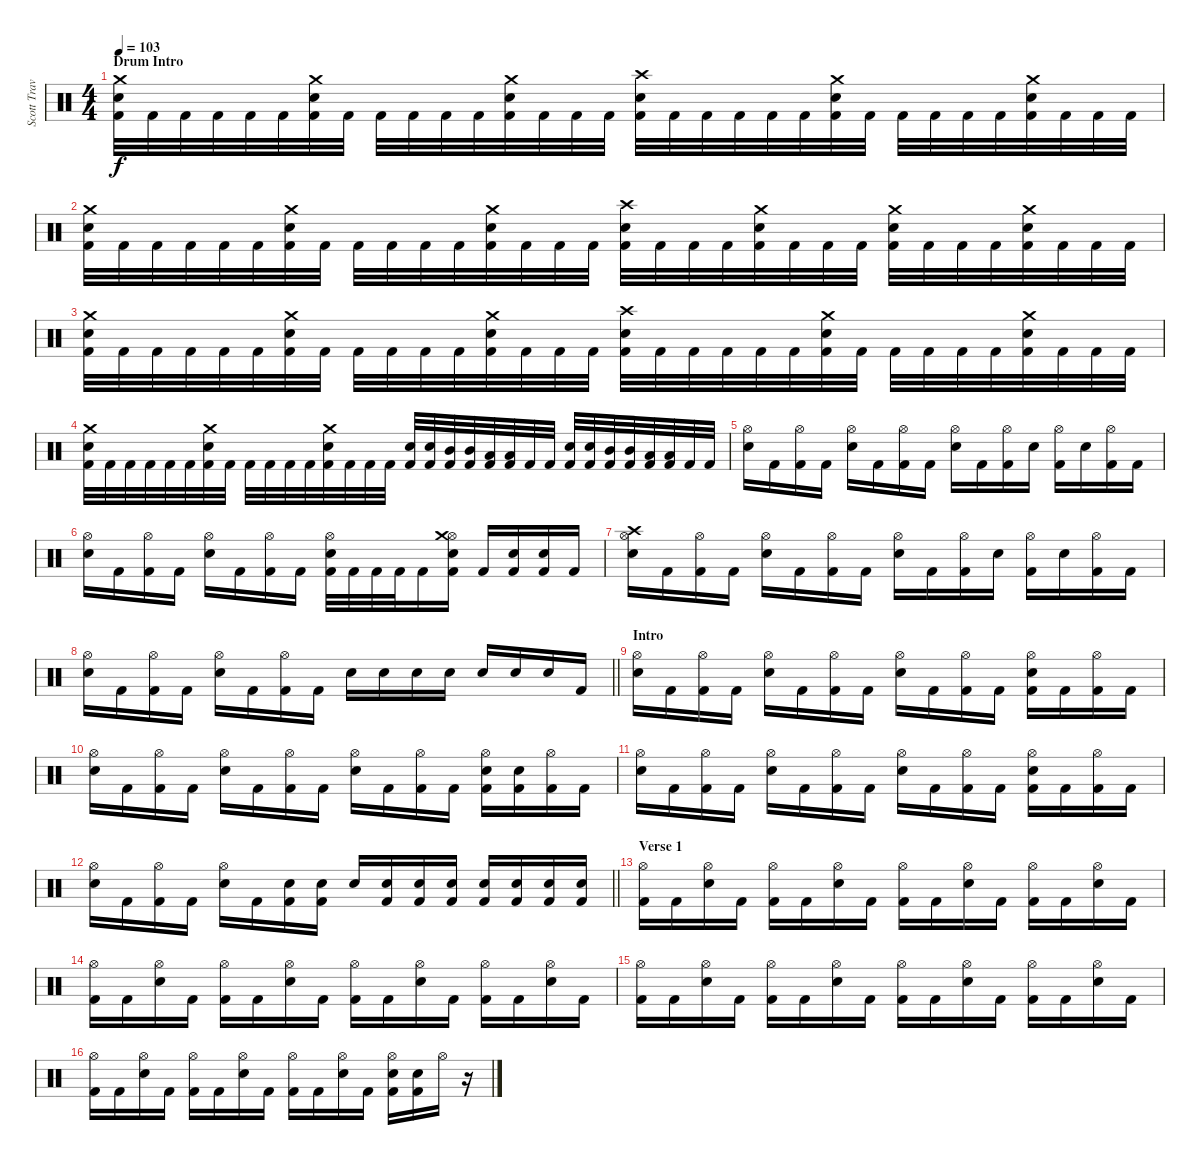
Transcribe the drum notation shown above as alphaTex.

\track ("Scott Travis" "Scott Trav") {instrument percussion}
\staff {score}
\articulation defaults
\ts (4 4)
\section ("" "Drum Intro")
\tempo 103
\clef neutral
\ks c
("Crash medium (hit)" "Snare (hit) 2" "Kick (hit) 2").32{dy f} "Kick (hit) 2".32 "Kick (hit) 2".32 "Kick (hit) 2".32 "Kick (hit) 2".32 "Kick (hit) 2".32 ("Crash medium (hit)" "Snare (hit) 2" "Kick (hit) 2").32 "Kick (hit) 2".32 "Kick (hit) 2".32 "Kick (hit) 2".32 "Kick (hit) 2".32 "Kick (hit) 2".32 ("Crash medium (hit)" "Snare (hit) 2" "Kick (hit) 2").32 "Kick (hit) 2".32 "Kick (hit) 2".32 "Kick (hit) 2".32 ("Crash high (hit)" "Snare (hit) 2" "Kick (hit) 2").32 "Kick (hit) 2".32 "Kick (hit) 2".32 "Kick (hit) 2".32 "Kick (hit) 2".32 "Kick (hit) 2".32 ("Crash medium (hit)" "Snare (hit) 2" "Kick (hit) 2").32 "Kick (hit) 2".32 "Kick (hit) 2".32 "Kick (hit) 2".32 "Kick (hit) 2".32 "Kick (hit) 2".32 ("Crash medium (hit)" "Snare (hit) 2" "Kick (hit) 2").32 "Kick (hit) 2".32 "Kick (hit) 2".32 "Kick (hit) 2".32 |
("Crash medium (hit)" "Snare (hit) 2" "Kick (hit) 2").32 "Kick (hit) 2".32 "Kick (hit) 2".32 "Kick (hit) 2".32 "Kick (hit) 2".32 "Kick (hit) 2".32 ("Crash medium (hit)" "Snare (hit) 2" "Kick (hit) 2").32 "Kick (hit) 2".32 "Kick (hit) 2".32 "Kick (hit) 2".32 "Kick (hit) 2".32 "Kick (hit) 2".32 ("Crash medium (hit)" "Snare (hit) 2" "Kick (hit) 2").32 "Kick (hit) 2".32 "Kick (hit) 2".32 "Kick (hit) 2".32 ("Crash high (hit)" "Snare (hit) 2" "Kick (hit) 2").32 "Kick (hit) 2".32 "Kick (hit) 2".32 "Kick (hit) 2".32 ("Snare (hit) 2" "Crash medium (hit)" "Kick (hit) 2").32 "Kick (hit) 2".32 "Kick (hit) 2".32 "Kick (hit) 2".32 ("Crash medium (hit)" "Snare (hit) 2" "Kick (hit) 2").32 "Kick (hit) 2".32 "Kick (hit) 2".32 "Kick (hit) 2".32 ("Crash medium (hit)" "Snare (hit) 2" "Kick (hit) 2").32 "Kick (hit) 2".32 "Kick (hit) 2".32 "Kick (hit) 2".32 |
("Crash medium (hit)" "Snare (hit) 2" "Kick (hit) 2").32 "Kick (hit) 2".32 "Kick (hit) 2".32 "Kick (hit) 2".32 "Kick (hit) 2".32 "Kick (hit) 2".32 ("Crash medium (hit)" "Snare (hit) 2" "Kick (hit) 2").32 "Kick (hit) 2".32 "Kick (hit) 2".32 "Kick (hit) 2".32 "Kick (hit) 2".32 "Kick (hit) 2".32 ("Crash medium (hit)" "Snare (hit) 2" "Kick (hit) 2").32 "Kick (hit) 2".32 "Kick (hit) 2".32 "Kick (hit) 2".32 ("Crash high (hit)" "Snare (hit) 2" "Kick (hit) 2").32 "Kick (hit) 2".32 "Kick (hit) 2".32 "Kick (hit) 2".32 "Kick (hit) 2".32 "Kick (hit) 2".32 ("Crash medium (hit)" "Snare (hit) 2" "Kick (hit) 2").32 "Kick (hit) 2".32 "Kick (hit) 2".32 "Kick (hit) 2".32 "Kick (hit) 2".32 "Kick (hit) 2".32 ("Crash medium (hit)" "Snare (hit) 2" "Kick (hit) 2").32 "Kick (hit) 2".32 "Kick (hit) 2".32 "Kick (hit) 2".32 |
("Snare (hit) 2" "Crash medium (hit)" "Kick (hit) 2").32 "Kick (hit) 2".32 "Kick (hit) 2".32 "Kick (hit) 2".32 "Kick (hit) 2".32 "Kick (hit) 2".32 ("Snare (hit) 2" "Crash medium (hit)" "Kick (hit) 2").32 "Kick (hit) 2".32 "Kick (hit) 2".32 "Kick (hit) 2".32 "Kick (hit) 2".32 "Kick (hit) 2".32 ("Crash medium (hit)" "Snare (hit) 2" "Kick (hit) 2").32 "Kick (hit) 2".32 "Kick (hit) 2".32 "Kick (hit) 2".32 ("Snare (hit) 2" "Kick (hit) 2").32 ("Snare (hit) 2" "Kick (hit) 2").32 ("Mid Tom (hit)" "Kick (hit) 2").32 ("Mid Tom (hit)" "Kick (hit) 2").32 ("Low Tom (hit)" "Kick (hit) 2").32 ("Low Tom (hit)" "Kick (hit) 2").32 "Kick (hit) 2".32 "Kick (hit) 2".32 ("Snare (hit) 2" "Kick (hit) 2").32 ("Snare (hit) 2" "Kick (hit) 2").32 ("Mid Tom (hit)" "Kick (hit) 2").32 ("Mid Tom (hit)" "Kick (hit) 2").32 ("Low Tom (hit)" "Kick (hit) 2").32 ("Low Tom (hit)" "Kick (hit) 2").32 "Kick (hit) 2".32 "Kick (hit) 2".32 |
("Hi-Hat (open)" "Snare (hit) 2").16 "Kick (hit) 2".16 ("Hi-Hat (open)" "Kick (hit) 2").16 "Kick (hit) 2".16 ("Hi-Hat (open)" "Snare (hit) 2").16 "Kick (hit) 2".16 ("Hi-Hat (open)" "Kick (hit) 2").16 "Kick (hit) 2".16 ("Hi-Hat (open)" "Snare (hit) 2").16 "Kick (hit) 2".16 ("Hi-Hat (open)" "Kick (hit) 2").16 "Snare (hit) 2".16 ("Hi-Hat (open)" "Kick (hit) 2").16 "Snare (hit) 2".16 ("Hi-Hat (open)" "Kick (hit) 2").16 "Kick (hit) 2".16 |
("Hi-Hat (open)" "Snare (hit) 2").16 "Kick (hit) 2".16 ("Hi-Hat (open)" "Kick (hit) 2").16 "Kick (hit) 2".16 ("Hi-Hat (open)" "Snare (hit) 2").16 "Kick (hit) 2".16 ("Hi-Hat (open)" "Kick (hit) 2").16 "Kick (hit) 2".16 ("Hi-Hat (open)" "Snare (hit) 2" "Kick (hit) 2").32 "Kick (hit) 2".32 "Kick (hit) 2".32 "Kick (hit) 2".32 "Kick (hit) 2".16 ("Hi-Hat (open)" "Crash medium (hit)" "Snare (hit) 2" "Kick (hit) 2").16 "Kick (hit) 2".16 ("Snare (hit) 2" "Kick (hit) 2").16 ("Snare (hit) 2" "Kick (hit) 2").16 "Kick (hit) 2".16 |
("Hi-Hat (open)" "Crash high (hit)" "Snare (hit) 2").16 "Kick (hit) 2".16 ("Hi-Hat (open)" "Kick (hit) 2").16 "Kick (hit) 2".16 ("Hi-Hat (open)" "Snare (hit) 2").16 "Kick (hit) 2".16 ("Hi-Hat (open)" "Kick (hit) 2").16 "Kick (hit) 2".16 ("Hi-Hat (open)" "Snare (hit) 2").16 "Kick (hit) 2".16 ("Hi-Hat (open)" "Kick (hit) 2").16 "Snare (hit) 2".16 ("Hi-Hat (open)" "Kick (hit) 2").16 "Snare (hit) 2".16 ("Hi-Hat (open)" "Kick (hit) 2").16 "Kick (hit) 2".16 |
\barLineRight lightlight
("Hi-Hat (open)" "Snare (hit) 2").16 "Kick (hit) 2".16 ("Hi-Hat (open)" "Kick (hit) 2").16 "Kick (hit) 2".16 ("Hi-Hat (open)" "Snare (hit) 2").16 "Kick (hit) 2".16 ("Hi-Hat (open)" "Kick (hit) 2").16 "Kick (hit) 2".16 "Snare (hit) 2".16 "Snare (hit) 2".16 "Snare (hit) 2".16 "Snare (hit) 2".16 "Snare (hit) 2".16 "Snare (hit) 2".16 "Snare (hit) 2".16 "Kick (hit) 2".16 |
\section ("" "Intro")
("Hi-Hat (open)" "Snare (hit) 2").16 "Kick (hit) 2".16 ("Hi-Hat (open)" "Kick (hit) 2").16 "Kick (hit) 2".16 ("Hi-Hat (open)" "Snare (hit) 2").16 "Kick (hit) 2".16 ("Hi-Hat (open)" "Kick (hit) 2").16 "Kick (hit) 2".16 ("Hi-Hat (open)" "Snare (hit) 2").16 "Kick (hit) 2".16 ("Hi-Hat (open)" "Kick (hit) 2").16 "Kick (hit) 2".16 ("Hi-Hat (open)" "Snare (hit) 2" "Kick (hit) 2").16 "Kick (hit) 2".16 ("Hi-Hat (open)" "Kick (hit) 2").16 "Kick (hit) 2".16 |
("Hi-Hat (open)" "Snare (hit) 2").16 "Kick (hit) 2".16 ("Hi-Hat (open)" "Kick (hit) 2").16 "Kick (hit) 2".16 ("Hi-Hat (open)" "Snare (hit) 2").16 "Kick (hit) 2".16 ("Hi-Hat (open)" "Kick (hit) 2").16 "Kick (hit) 2".16 ("Hi-Hat (open)" "Snare (hit) 2").16 "Kick (hit) 2".16 ("Hi-Hat (open)" "Kick (hit) 2").16 "Kick (hit) 2".16 ("Hi-Hat (open)" "Snare (hit) 2" "Kick (hit) 2").16 ("Snare (hit) 2" "Kick (hit) 2").16 ("Hi-Hat (open)" "Kick (hit) 2").16 "Kick (hit) 2".16 |
("Hi-Hat (open)" "Snare (hit) 2").16 "Kick (hit) 2".16 ("Hi-Hat (open)" "Kick (hit) 2").16 "Kick (hit) 2".16 ("Hi-Hat (open)" "Snare (hit) 2").16 "Kick (hit) 2".16 ("Hi-Hat (open)" "Kick (hit) 2").16 "Kick (hit) 2".16 ("Hi-Hat (open)" "Snare (hit) 2").16 "Kick (hit) 2".16 ("Hi-Hat (open)" "Kick (hit) 2").16 "Kick (hit) 2".16 ("Hi-Hat (open)" "Snare (hit) 2" "Kick (hit) 2").16 "Kick (hit) 2".16 ("Hi-Hat (open)" "Kick (hit) 2").16 "Kick (hit) 2".16 |
\barLineRight lightlight
("Hi-Hat (open)" "Snare (hit) 2").16 "Kick (hit) 2".16 ("Hi-Hat (open)" "Kick (hit) 2").16 "Kick (hit) 2".16 ("Hi-Hat (open)" "Snare (hit) 2").16 "Kick (hit) 2".16 ("Snare (hit) 2" "Kick (hit) 2").16 ("Snare (hit) 2" "Kick (hit) 2").16 "Snare (hit) 2".16 ("Snare (hit) 2" "Kick (hit) 2").16 ("Snare (hit) 2" "Kick (hit) 2").16 ("Snare (hit) 2" "Kick (hit) 2").16 ("Snare (hit) 2" "Kick (hit) 2").16 ("Snare (hit) 2" "Kick (hit) 2").16 ("Snare (hit) 2" "Kick (hit) 2").16 ("Snare (hit) 2" "Kick (hit) 2").16 |
\section ("" "Verse 1")
("Hi-Hat (open)" "Kick (hit) 2").16 "Kick (hit) 2".16 ("Hi-Hat (open)" "Snare (hit) 2").16 "Kick (hit) 2".16 ("Hi-Hat (open)" "Kick (hit) 2").16 "Kick (hit) 2".16 ("Hi-Hat (open)" "Snare (hit) 2").16 "Kick (hit) 2".16 ("Hi-Hat (open)" "Kick (hit) 2").16 "Kick (hit) 2".16 ("Hi-Hat (open)" "Snare (hit) 2").16 "Kick (hit) 2".16 ("Hi-Hat (open)" "Kick (hit) 2").16 "Kick (hit) 2".16 ("Hi-Hat (open)" "Snare (hit) 2").16 "Kick (hit) 2".16 |
("Hi-Hat (open)" "Kick (hit) 2").16 "Kick (hit) 2".16 ("Hi-Hat (open)" "Snare (hit) 2").16 "Kick (hit) 2".16 ("Hi-Hat (open)" "Kick (hit) 2").16 "Kick (hit) 2".16 ("Hi-Hat (open)" "Snare (hit) 2").16 "Kick (hit) 2".16 ("Hi-Hat (open)" "Kick (hit) 2").16 "Kick (hit) 2".16 ("Hi-Hat (open)" "Snare (hit) 2").16 "Kick (hit) 2".16 ("Hi-Hat (open)" "Kick (hit) 2").16 "Kick (hit) 2".16 ("Hi-Hat (open)" "Snare (hit) 2").16 "Kick (hit) 2".16 |
("Hi-Hat (open)" "Kick (hit) 2").16 "Kick (hit) 2".16 ("Hi-Hat (open)" "Snare (hit) 2").16 "Kick (hit) 2".16 ("Hi-Hat (open)" "Kick (hit) 2").16 "Kick (hit) 2".16 ("Hi-Hat (open)" "Snare (hit) 2").16 "Kick (hit) 2".16 ("Hi-Hat (open)" "Kick (hit) 2").16 "Kick (hit) 2".16 ("Hi-Hat (open)" "Snare (hit) 2").16 "Kick (hit) 2".16 ("Hi-Hat (open)" "Kick (hit) 2").16 "Kick (hit) 2".16 ("Hi-Hat (open)" "Snare (hit) 2").16 "Kick (hit) 2".16 |
("Hi-Hat (open)" "Kick (hit) 2").16 "Kick (hit) 2".16 ("Hi-Hat (open)" "Snare (hit) 2").16 "Kick (hit) 2".16 ("Hi-Hat (open)" "Kick (hit) 2").16 "Kick (hit) 2".16 ("Hi-Hat (open)" "Snare (hit) 2").16 "Kick (hit) 2".16 ("Hi-Hat (open)" "Kick (hit) 2").16 "Kick (hit) 2".16 ("Hi-Hat (open)" "Snare (hit) 2").16 "Kick (hit) 2".16 ("Hi-Hat (open)" "Snare (hit) 2" "Kick (hit) 2").16 ("Snare (hit) 2" "Kick (hit) 2").16 "Hi-Hat (open)".16 r.16
